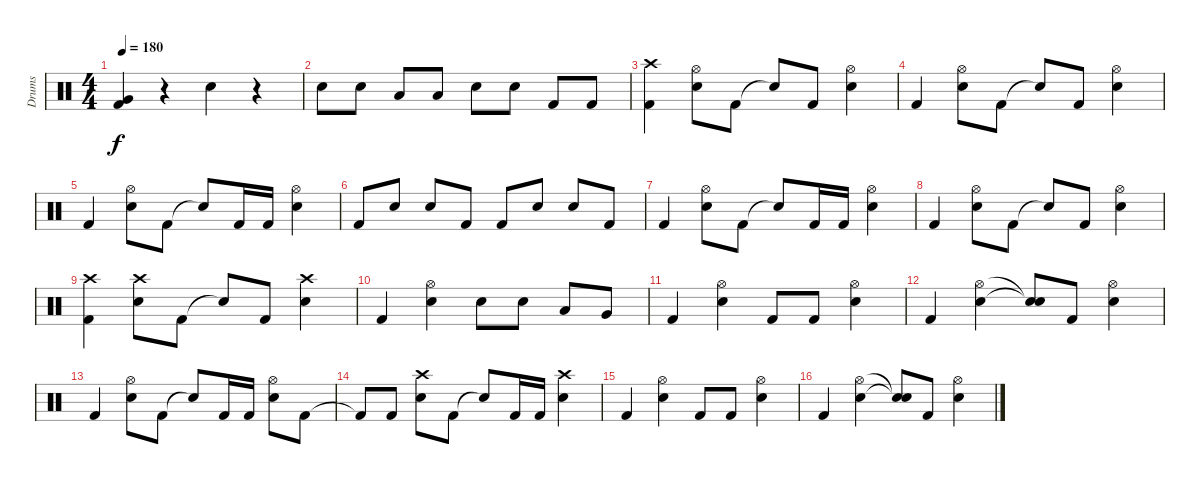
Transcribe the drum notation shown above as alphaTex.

\track ("Drums" "Drums") {instrument percussion}
\staff {score}
\articulation defaults
\ts (4 4)
\tempo 180
\clef neutral
\ks c
("Very Low Tom (hit)" "Kick (hit) 2").4{dy f} r.4 "Electric Snare (hit)".4 r.4 |
"Electric Snare (hit)".8 "Electric Snare (hit)".8 "Low Tom (hit)".8 "Low Tom (hit)".8 "Electric Snare (hit)".8 "Electric Snare (hit)".8 "Kick (hit) 2".8 "Kick (hit) 2".8 |
("Crash high (hit)" "Kick (hit) 2").4 ("Hi-Hat (open)" "Electric Snare (hit)").8 "Kick (hit) 2".8 "Snare (hit)"{t}.8 "Kick (hit) 2".8 ("Hi-Hat (open)" "Electric Snare (hit)").4 |
"Kick (hit) 2".4 ("Hi-Hat (open)" "Electric Snare (hit)").8 "Kick (hit) 2".8 "Snare (hit)"{t}.8 "Kick (hit) 2".8 ("Hi-Hat (open)" "Electric Snare (hit)").4 |
"Kick (hit) 2".4 ("Hi-Hat (open)" "Electric Snare (hit)").8 "Kick (hit) 2".8 "Snare (hit)"{t}.8 "Kick (hit) 2".16 "Kick (hit) 2".16 ("Hi-Hat (open)" "Electric Snare (hit)").4 |
"Kick (hit) 2".8 "Electric Snare (hit)".8 "Electric Snare (hit)".8 "Kick (hit) 2".8 "Kick (hit) 2".8 "Electric Snare (hit)".8 "Electric Snare (hit)".8 "Kick (hit) 2".8 |
"Kick (hit) 2".4 ("Hi-Hat (open)" "Electric Snare (hit)").8 "Kick (hit) 2".8 "Snare (hit)"{t}.8 "Kick (hit) 2".16 "Kick (hit) 2".16 ("Hi-Hat (open)" "Electric Snare (hit)").4 |
"Kick (hit) 2".4 ("Hi-Hat (open)" "Electric Snare (hit)").8 "Kick (hit) 2".8 "Snare (hit)"{t}.8 "Kick (hit) 2".8 ("Hi-Hat (open)" "Electric Snare (hit)").4 |
("Crash high (hit)" "Kick (hit) 2").4 ("Crash high (hit)" "Electric Snare (hit)").8 "Kick (hit) 2".8 "Snare (hit)"{t}.8 "Kick (hit) 2".8 ("Crash high (hit)" "Electric Snare (hit)").4 |
"Kick (hit) 2".4 ("Hi-Hat (open)" "Electric Snare (hit)").4 "Electric Snare (hit)".8 "Electric Snare (hit)".8 "Low Tom (hit)".8 "Very Low Tom (hit)".8 |
"Kick (hit) 2".4 ("Hi-Hat (open)" "Electric Snare (hit)").4 "Kick (hit) 2".8 "Kick (hit) 2".8 ("Hi-Hat (open)" "Electric Snare (hit)").4 |
"Kick (hit) 2".4 ("Hi-Hat (open)" "Electric Snare (hit)").4 ("Snare (hit)"{t} "Snare (hit)"{t}).8 "Kick (hit) 2".8 ("Hi-Hat (open)" "Electric Snare (hit)").4 |
"Kick (hit) 2".4 ("Hi-Hat (open)" "Electric Snare (hit)").8 "Kick (hit) 2".8 "Snare (hit)"{t}.8 "Kick (hit) 2".16 "Kick (hit) 2".16 ("Hi-Hat (open)" "Electric Snare (hit)").8 "Kick (hit) 2".8 |
"Kick (hit) 2"{t}.8 "Kick (hit) 2".8 ("Crash high (hit)" "Electric Snare (hit)").8 "Kick (hit) 2".8 "Snare (hit)"{t}.8 "Kick (hit) 2".16 "Kick (hit) 2".16 ("Crash high (hit)" "Electric Snare (hit)").4 |
"Kick (hit) 2".4 ("Hi-Hat (open)" "Electric Snare (hit)").4 "Kick (hit) 2".8 "Kick (hit) 2".8 ("Hi-Hat (open)" "Electric Snare (hit)").4 |
"Kick (hit) 2".4 ("Hi-Hat (open)" "Electric Snare (hit)").4 ("Snare (hit)"{t} "Snare (hit)"{t}).8 "Kick (hit) 2".8 ("Hi-Hat (open)" "Electric Snare (hit)").4
